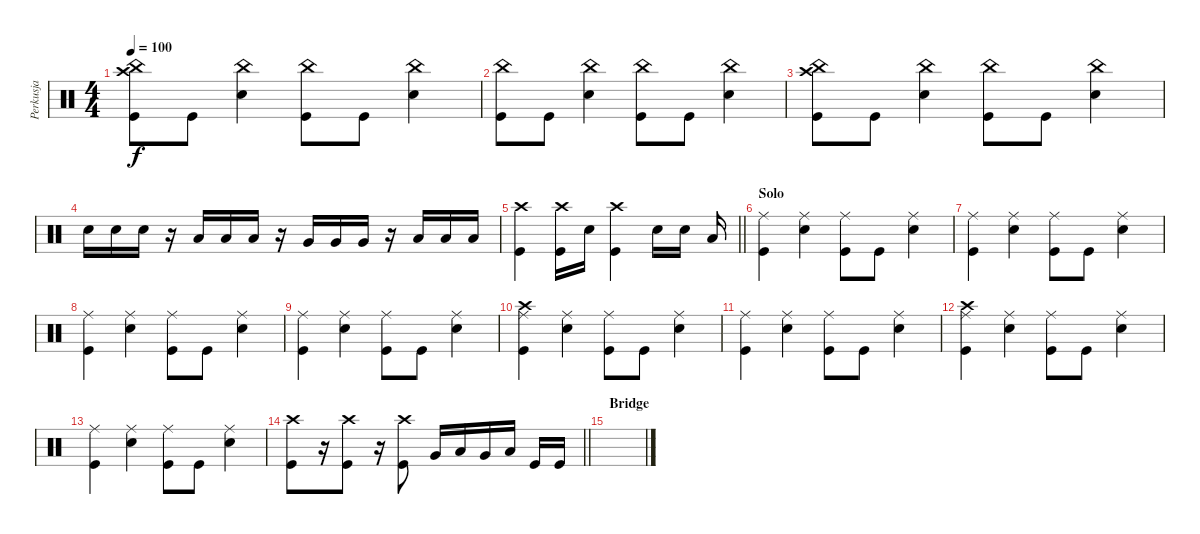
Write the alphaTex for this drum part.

\track ("Perkusja" "Perkusja") {instrument percussion}
\staff {score}
\articulation defaults
\ts (4 4)
\tempo 100
\clef neutral
\ks c
("China (hit)" "Kick (hit)" "Crash high (hit)").8{dy f} "Kick (hit)".8 ("China (hit)" "Snare (hit) 2").4 ("China (hit)" "Kick (hit)").8 "Kick (hit)".8 ("China (hit)" "Snare (hit) 2").4 |
("China (hit)" "Kick (hit)").8 "Kick (hit)".8 ("China (hit)" "Snare (hit) 2").4 ("China (hit)" "Kick (hit)").8 "Kick (hit)".8 ("China (hit)" "Snare (hit) 2").4 |
("China (hit)" "Kick (hit)" "Crash high (hit)").8 "Kick (hit)".8 ("China (hit)" "Snare (hit) 2").4 ("China (hit)" "Kick (hit)").8 "Kick (hit)".8 ("China (hit)" "Snare (hit) 2").4 |
"Snare (hit) 2".16 "Snare (hit) 2".16 "Snare (hit) 2".16 r.16 "Low Tom (hit)".16 "Low Tom (hit)".16 "Low Tom (hit)".16 r.16 "Very Low Tom (hit)".16 "Very Low Tom (hit)".16 "Very Low Tom (hit)".16 r.16 "Low Floor Tom (hit)".16 "Low Floor Tom (hit)".16 "Low Floor Tom (hit)".16 |
\barLineRight lightlight
("Kick (hit)" "Crash high (hit)").4 ("Kick (hit)" "Crash high (hit)").16 "Snare (hit) 2".16 ("Crash high (hit)" "Kick (hit)").4 "Snare (hit) 2".16 "Snare (hit) 2".16 "Low Tom (hit)".16 |
\section ("" "Solo")
("Ride (middle)" "Kick (hit)").4 ("Ride (middle)" "Snare (hit) 2").4 ("Ride (middle)" "Kick (hit)").8 "Kick (hit)".8 ("Ride (middle)" "Snare (hit) 2").4 |
("Ride (middle)" "Kick (hit)").4 ("Ride (middle)" "Snare (hit) 2").4 ("Ride (middle)" "Kick (hit)").8 "Kick (hit)".8 ("Ride (middle)" "Snare (hit) 2").4 |
("Ride (middle)" "Kick (hit)").4 ("Ride (middle)" "Snare (hit) 2").4 ("Ride (middle)" "Kick (hit)").8 "Kick (hit)".8 ("Ride (middle)" "Snare (hit) 2").4 |
("Ride (middle)" "Kick (hit)").4 ("Ride (middle)" "Snare (hit) 2").4 ("Ride (middle)" "Kick (hit)").8 "Kick (hit)".8 ("Ride (middle)" "Snare (hit) 2").4 |
("Ride (middle)" "Kick (hit)" "Crash high (hit)").4 ("Ride (middle)" "Snare (hit) 2").4 ("Ride (middle)" "Kick (hit)").8 "Kick (hit)".8 ("Ride (middle)" "Snare (hit) 2").4 |
("Ride (middle)" "Kick (hit)").4 ("Ride (middle)" "Snare (hit) 2").4 ("Ride (middle)" "Kick (hit)").8 "Kick (hit)".8 ("Ride (middle)" "Snare (hit) 2").4 |
("Ride (middle)" "Kick (hit)" "Crash high (hit)").4 ("Ride (middle)" "Snare (hit) 2").4 ("Ride (middle)" "Kick (hit)").8 "Kick (hit)".8 ("Ride (middle)" "Snare (hit) 2").4 |
("Ride (middle)" "Kick (hit)").4 ("Ride (middle)" "Snare (hit) 2").4 ("Ride (middle)" "Kick (hit)").8 "Kick (hit)".8 ("Ride (middle)" "Snare (hit) 2").4 |
\barLineRight lightlight
("Kick (hit)" "Crash high (hit)").8 r.16 ("Crash high (hit)" "Kick (hit)").8 r.16 ("Kick (hit)" "Crash high (hit)").8 "Very Low Tom (hit)".16 "Low Tom (hit)".16 "Very Low Tom (hit)".16 "Low Floor Tom (hit)".16 "Kick (hit)".16 "Kick (hit)".16 |
\section ("" "Bridge")
